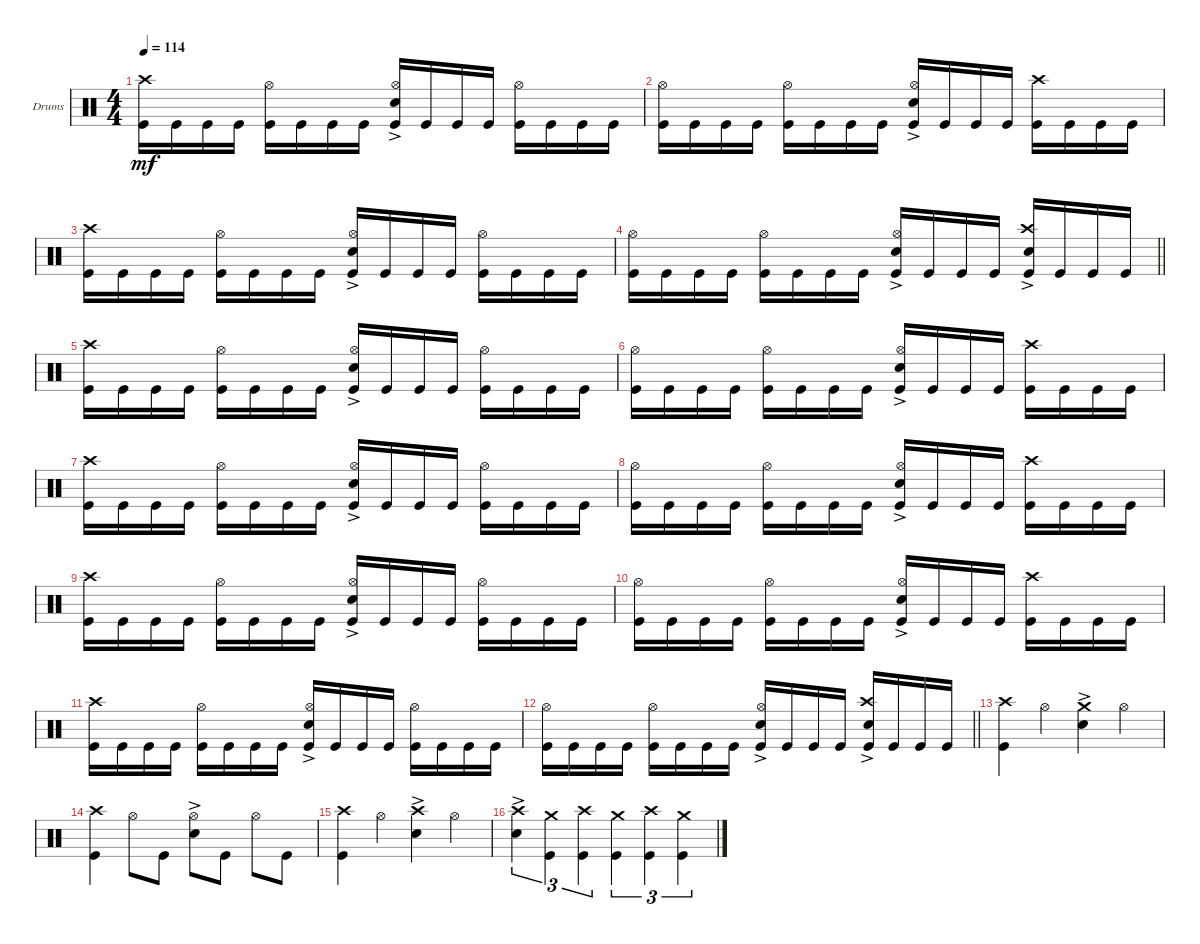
\bracketExtendMode groupsimilarinstruments
\firstSystemTrackNameOrientation horizontal
\otherSystemsTrackNameOrientation horizontal
\track ("Drumkit" "Drums") {instrument percussion}
\staff {score}
\articulation defaults
\ts (4 4)
\tempo 114
\clef neutral
\ks c
("Kick (hit)" "Crash high (hit)").16{dy mf} "Kick (hit)".16 "Kick (hit)".16 "Kick (hit)".16 ("Kick (hit)" "Hi-Hat (open)").16 "Kick (hit)".16 "Kick (hit)".16 "Kick (hit)".16 ("Kick (hit)" "Snare (hit) 2"{ac} "Hi-Hat (open)").16 "Kick (hit)".16 "Kick (hit)".16 "Kick (hit)".16 ("Kick (hit)" "Hi-Hat (open)").16 "Kick (hit)".16 "Kick (hit)".16 "Kick (hit)".16 |
("Kick (hit)" "Hi-Hat (open)").16 "Kick (hit)".16 "Kick (hit)".16 "Kick (hit)".16 ("Kick (hit)" "Hi-Hat (open)").16 "Kick (hit)".16 "Kick (hit)".16 "Kick (hit)".16 ("Kick (hit)" "Snare (hit) 2"{ac} "Hi-Hat (open)").16 "Kick (hit)".16 "Kick (hit)".16 "Kick (hit)".16 ("Kick (hit)" "Crash high (hit)").16 "Kick (hit)".16 "Kick (hit)".16 "Kick (hit)".16 |
("Kick (hit)" "Crash high (hit)").16 "Kick (hit)".16 "Kick (hit)".16 "Kick (hit)".16 ("Kick (hit)" "Hi-Hat (open)").16 "Kick (hit)".16 "Kick (hit)".16 "Kick (hit)".16 ("Kick (hit)" "Snare (hit) 2"{ac} "Hi-Hat (open)").16 "Kick (hit)".16 "Kick (hit)".16 "Kick (hit)".16 ("Kick (hit)" "Hi-Hat (open)").16 "Kick (hit)".16 "Kick (hit)".16 "Kick (hit)".16 |
\barLineRight lightlight
("Kick (hit)" "Hi-Hat (open)").16 "Kick (hit)".16 "Kick (hit)".16 "Kick (hit)".16 ("Kick (hit)" "Hi-Hat (open)").16 "Kick (hit)".16 "Kick (hit)".16 "Kick (hit)".16 ("Kick (hit)" "Snare (hit) 2"{ac} "Hi-Hat (open)").16 "Kick (hit)".16 "Kick (hit)".16 "Kick (hit)".16 ("Kick (hit)" "Crash high (hit)" "Snare (hit) 2"{ac}).16 "Kick (hit)".16 "Kick (hit)".16 "Kick (hit)".16 |
("Kick (hit)" "Crash high (hit)").16 "Kick (hit)".16 "Kick (hit)".16 "Kick (hit)".16 ("Kick (hit)" "Hi-Hat (open)").16 "Kick (hit)".16 "Kick (hit)".16 "Kick (hit)".16 ("Kick (hit)" "Snare (hit) 2"{ac} "Hi-Hat (open)").16 "Kick (hit)".16 "Kick (hit)".16 "Kick (hit)".16 ("Kick (hit)" "Hi-Hat (open)").16 "Kick (hit)".16 "Kick (hit)".16 "Kick (hit)".16 |
("Kick (hit)" "Hi-Hat (open)").16 "Kick (hit)".16 "Kick (hit)".16 "Kick (hit)".16 ("Kick (hit)" "Hi-Hat (open)").16 "Kick (hit)".16 "Kick (hit)".16 "Kick (hit)".16 ("Kick (hit)" "Snare (hit) 2"{ac} "Hi-Hat (open)").16 "Kick (hit)".16 "Kick (hit)".16 "Kick (hit)".16 ("Kick (hit)" "Crash high (hit)").16 "Kick (hit)".16 "Kick (hit)".16 "Kick (hit)".16 |
("Kick (hit)" "Crash high (hit)").16 "Kick (hit)".16 "Kick (hit)".16 "Kick (hit)".16 ("Kick (hit)" "Hi-Hat (open)").16 "Kick (hit)".16 "Kick (hit)".16 "Kick (hit)".16 ("Kick (hit)" "Snare (hit) 2"{ac} "Hi-Hat (open)").16 "Kick (hit)".16 "Kick (hit)".16 "Kick (hit)".16 ("Kick (hit)" "Hi-Hat (open)").16 "Kick (hit)".16 "Kick (hit)".16 "Kick (hit)".16 |
("Kick (hit)" "Hi-Hat (open)").16 "Kick (hit)".16 "Kick (hit)".16 "Kick (hit)".16 ("Kick (hit)" "Hi-Hat (open)").16 "Kick (hit)".16 "Kick (hit)".16 "Kick (hit)".16 ("Kick (hit)" "Snare (hit) 2"{ac} "Hi-Hat (open)").16 "Kick (hit)".16 "Kick (hit)".16 "Kick (hit)".16 ("Kick (hit)" "Crash high (hit)").16 "Kick (hit)".16 "Kick (hit)".16 "Kick (hit)".16 |
("Kick (hit)" "Crash high (hit)").16 "Kick (hit)".16 "Kick (hit)".16 "Kick (hit)".16 ("Kick (hit)" "Hi-Hat (open)").16 "Kick (hit)".16 "Kick (hit)".16 "Kick (hit)".16 ("Kick (hit)" "Snare (hit) 2"{ac} "Hi-Hat (open)").16 "Kick (hit)".16 "Kick (hit)".16 "Kick (hit)".16 ("Kick (hit)" "Hi-Hat (open)").16 "Kick (hit)".16 "Kick (hit)".16 "Kick (hit)".16 |
("Kick (hit)" "Hi-Hat (open)").16 "Kick (hit)".16 "Kick (hit)".16 "Kick (hit)".16 ("Kick (hit)" "Hi-Hat (open)").16 "Kick (hit)".16 "Kick (hit)".16 "Kick (hit)".16 ("Kick (hit)" "Snare (hit) 2"{ac} "Hi-Hat (open)").16 "Kick (hit)".16 "Kick (hit)".16 "Kick (hit)".16 ("Kick (hit)" "Crash high (hit)").16 "Kick (hit)".16 "Kick (hit)".16 "Kick (hit)".16 |
("Kick (hit)" "Crash high (hit)").16 "Kick (hit)".16 "Kick (hit)".16 "Kick (hit)".16 ("Kick (hit)" "Hi-Hat (open)").16 "Kick (hit)".16 "Kick (hit)".16 "Kick (hit)".16 ("Kick (hit)" "Snare (hit) 2"{ac} "Hi-Hat (open)").16 "Kick (hit)".16 "Kick (hit)".16 "Kick (hit)".16 ("Kick (hit)" "Hi-Hat (open)").16 "Kick (hit)".16 "Kick (hit)".16 "Kick (hit)".16 |
\barLineRight lightlight
("Kick (hit)" "Hi-Hat (open)").16 "Kick (hit)".16 "Kick (hit)".16 "Kick (hit)".16 ("Kick (hit)" "Hi-Hat (open)").16 "Kick (hit)".16 "Kick (hit)".16 "Kick (hit)".16 ("Kick (hit)" "Snare (hit) 2"{ac} "Hi-Hat (open)").16 "Kick (hit)".16 "Kick (hit)".16 "Kick (hit)".16 ("Kick (hit)" "Crash high (hit)" "Snare (hit) 2"{ac}).16 "Kick (hit)".16 "Kick (hit)".16 "Kick (hit)".16 |
("Kick (hit)" "Crash high (hit)").4 "Hi-Hat (open)".4 ("Snare (hit) 2"{ac} "Crash medium (hit)").4 "Hi-Hat (open)".4 |
("Kick (hit)" "Crash high (hit)").4 "Hi-Hat (open)".8 "Kick (hit)".8 ("Snare (hit) 2"{ac} "Hi-Hat (open)").8 "Kick (hit)".8 "Hi-Hat (open)".8 "Kick (hit)".8 |
("Kick (hit)" "Crash high (hit)").4 "Hi-Hat (open)".4 ("Snare (hit) 2"{ac} "Crash high (hit)").4 "Hi-Hat (open)".4 |
("Crash high (hit)" "Snare (hit) 2"{ac}).4{tu (3 2)} ("Kick (hit)" "Crash medium (hit)").4{tu (3 2)} ("Kick (hit)" "Crash high (hit)").4{tu (3 2)} ("Kick (hit)" "Crash medium (hit)").4{tu (3 2)} ("Kick (hit)" "Crash high (hit)").4{tu (3 2)} ("Kick (hit)" "Crash medium (hit)").4{tu (3 2)}
